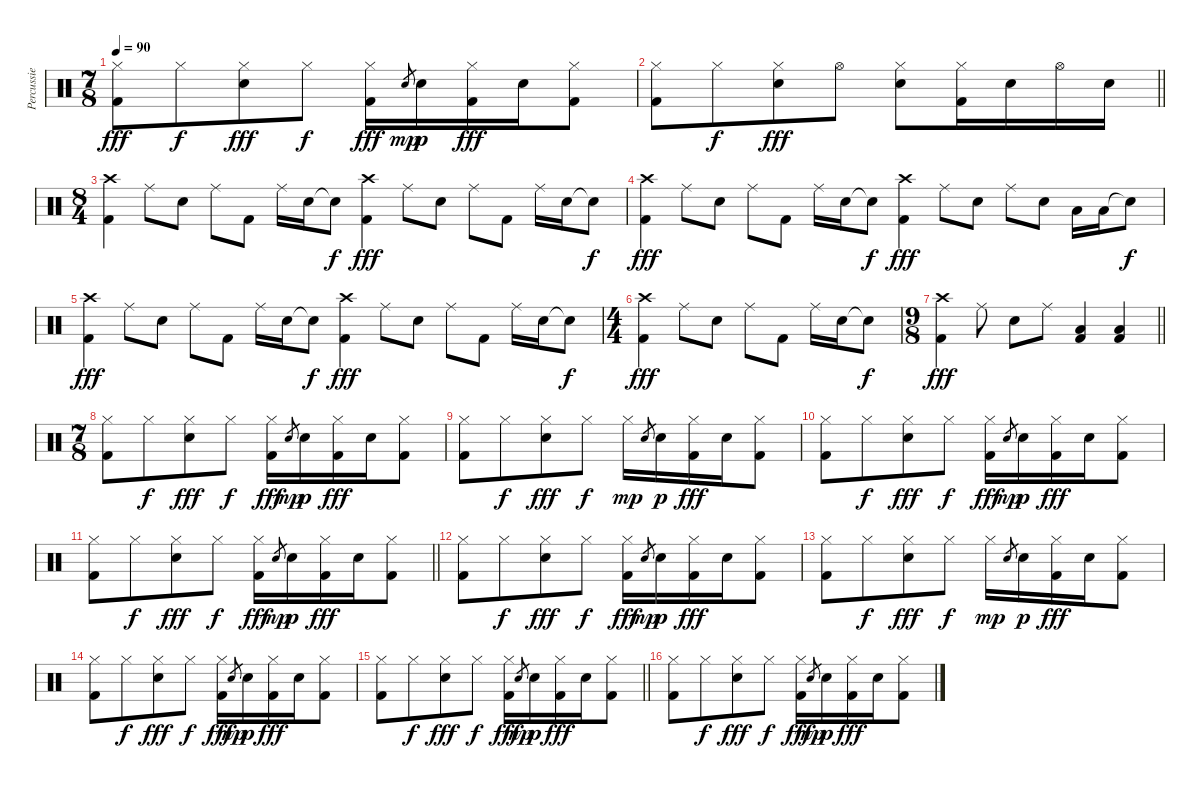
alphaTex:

\track ("Percussie" "Percussie") {instrument percussion}
\staff {score}
\articulation defaults
\ts (7 8)
\tempo 90
\clef neutral
\ks c
("Hi-Hat (closed)" "Kick (hit) 2").8{dy fff} "Hi-Hat (closed)".8{dy f} ("Hi-Hat (closed)" "Snare (hit) 2").8{dy fff} "Hi-Hat (closed)".8{dy f} ("Hi-Hat (closed)" "Kick (hit) 2").16{dy fff} "Snare (hit) 2".8{gr dy mp} "Snare (hit) 2".16{dy p} ("Hi-Hat (closed)" "Kick (hit) 2").16{dy fff} "Snare (hit) 2".16 ("Hi-Hat (closed)" "Kick (hit) 2").8 |
\barLineRight lightlight
("Hi-Hat (closed)" "Kick (hit) 2").8 "Hi-Hat (closed)".8{dy f} ("Hi-Hat (closed)" "Snare (hit) 2").8{dy fff} "Hi-Hat (open)".8 ("Hi-Hat (closed)" "Snare (hit) 2").8 ("Hi-Hat (closed)" "Kick (hit) 2").16 "Snare (hit) 2".16 "Hi-Hat (open)".16 "Snare (hit) 2".16 |
\ts (8 4)
("Crash high (hit)" "Kick (hit) 2").4 "Ride (middle)".8 "Snare (hit) 2".8 "Ride (middle)".8 "Kick (hit) 2".8 "Ride (middle)".16 "Snare (hit) 2".16 "Snare (hit)"{t}.8{dy f} ("Crash high (hit)" "Kick (hit) 2").4{dy fff} "Ride (middle)".8 "Snare (hit) 2".8 "Ride (middle)".8 "Kick (hit) 2".8 "Ride (middle)".16 "Snare (hit) 2".16 "Snare (hit)"{t}.8{dy f} |
("Crash high (hit)" "Kick (hit) 2").4{dy fff} "Ride (middle)".8 "Snare (hit) 2".8 "Ride (middle)".8 "Kick (hit) 2".8 "Ride (middle)".16 "Snare (hit) 2".16 "Snare (hit)"{t}.8{dy f} ("Crash high (hit)" "Kick (hit) 2").4{dy fff} "Ride (middle)".8 "Snare (hit) 2".8 "Ride (middle)".8 "Snare (hit) 2".8 "Low Floor Tom (hit)".16 "Low Floor Tom (hit)".16 "Snare (hit)"{t}.8{dy f} |
("Crash high (hit)" "Kick (hit) 2").4{dy fff} "Ride (middle)".8 "Snare (hit) 2".8 "Ride (middle)".8 "Kick (hit) 2".8 "Ride (middle)".16 "Snare (hit) 2".16 "Snare (hit)"{t}.8{dy f} ("Crash high (hit)" "Kick (hit) 2").4{dy fff} "Ride (middle)".8 "Snare (hit) 2".8 "Ride (middle)".8 "Kick (hit) 2".8 "Ride (middle)".16 "Snare (hit) 2".16 "Snare (hit)"{t}.8{dy f} |
\ts (4 4)
("Crash high (hit)" "Kick (hit) 2").4{dy fff} "Ride (middle)".8 "Snare (hit) 2".8 "Ride (middle)".8 "Kick (hit) 2".8 "Ride (middle)".16 "Snare (hit) 2".16 "Snare (hit)"{t}.8{dy f} |
\ts (9 8)
\barLineRight lightlight
("Crash high (hit)" "Kick (hit) 2").4{dy fff} "Ride (middle)".8 "Snare (hit) 2".8 "Ride (middle)".8 ("Low Floor Tom (hit)" "Kick (hit) 2").4 ("Low Floor Tom (hit)" "Kick (hit) 2").4 |
\ts (7 8)
("Hi-Hat (closed)" "Kick (hit) 2").8 "Hi-Hat (closed)".8{dy f} ("Hi-Hat (closed)" "Snare (hit) 2").8{dy fff} "Hi-Hat (closed)".8{dy f} ("Hi-Hat (closed)" "Kick (hit) 2").16{dy fff} "Snare (hit) 2".8{gr dy mp} "Snare (hit) 2".16{dy p} ("Hi-Hat (closed)" "Kick (hit) 2").16{dy fff} "Snare (hit) 2".16 ("Hi-Hat (closed)" "Kick (hit) 2").8 |
("Hi-Hat (closed)" "Kick (hit) 2").8 "Hi-Hat (closed)".8{dy f} ("Hi-Hat (closed)" "Snare (hit) 2").8{dy fff} "Hi-Hat (closed)".8{dy f} "Hi-Hat (closed)".16{dy mp} "Snare (hit) 2".8{gr} "Snare (hit) 2".16{dy p} ("Hi-Hat (closed)" "Kick (hit) 2").16{dy fff} "Snare (hit) 2".16 ("Hi-Hat (closed)" "Kick (hit) 2").8 |
("Hi-Hat (closed)" "Kick (hit) 2").8 "Hi-Hat (closed)".8{dy f} ("Hi-Hat (closed)" "Snare (hit) 2").8{dy fff} "Hi-Hat (closed)".8{dy f} ("Hi-Hat (closed)" "Kick (hit) 2").16{dy fff} "Snare (hit) 2".8{gr dy mp} "Snare (hit) 2".16{dy p} ("Hi-Hat (closed)" "Kick (hit) 2").16{dy fff} "Snare (hit) 2".16 ("Hi-Hat (closed)" "Kick (hit) 2").8 |
\barLineRight lightlight
("Hi-Hat (closed)" "Kick (hit) 2").8 "Hi-Hat (closed)".8{dy f} ("Hi-Hat (closed)" "Snare (hit) 2").8{dy fff} "Hi-Hat (closed)".8{dy f} ("Hi-Hat (closed)" "Kick (hit) 2").16{dy fff} "Snare (hit) 2".8{gr dy mp} "Snare (hit) 2".16{dy p} ("Hi-Hat (closed)" "Kick (hit) 2").16{dy fff} "Snare (hit) 2".16 ("Hi-Hat (closed)" "Kick (hit) 2").8 |
("Hi-Hat (closed)" "Kick (hit) 2").8 "Hi-Hat (closed)".8{dy f} ("Hi-Hat (closed)" "Snare (hit) 2").8{dy fff} "Hi-Hat (closed)".8{dy f} ("Hi-Hat (closed)" "Kick (hit) 2").16{dy fff} "Snare (hit) 2".8{gr dy mp} "Snare (hit) 2".16{dy p} ("Hi-Hat (closed)" "Kick (hit) 2").16{dy fff} "Snare (hit) 2".16 ("Hi-Hat (closed)" "Kick (hit) 2").8 |
("Hi-Hat (closed)" "Kick (hit) 2").8 "Hi-Hat (closed)".8{dy f} ("Hi-Hat (closed)" "Snare (hit) 2").8{dy fff} "Hi-Hat (closed)".8{dy f} "Hi-Hat (closed)".16{dy mp} "Snare (hit) 2".8{gr} "Snare (hit) 2".16{dy p} ("Hi-Hat (closed)" "Kick (hit) 2").16{dy fff} "Snare (hit) 2".16 ("Hi-Hat (closed)" "Kick (hit) 2").8 |
("Hi-Hat (closed)" "Kick (hit) 2").8 "Hi-Hat (closed)".8{dy f} ("Hi-Hat (closed)" "Snare (hit) 2").8{dy fff} "Hi-Hat (closed)".8{dy f} ("Hi-Hat (closed)" "Kick (hit) 2").16{dy fff} "Snare (hit) 2".8{gr dy mp} "Snare (hit) 2".16{dy p} ("Hi-Hat (closed)" "Kick (hit) 2").16{dy fff} "Snare (hit) 2".16 ("Hi-Hat (closed)" "Kick (hit) 2").8 |
\barLineRight lightlight
("Hi-Hat (closed)" "Kick (hit) 2").8 "Hi-Hat (closed)".8{dy f} ("Hi-Hat (closed)" "Snare (hit) 2").8{dy fff} "Hi-Hat (closed)".8{dy f} ("Hi-Hat (closed)" "Kick (hit) 2").16{dy fff} "Snare (hit) 2".8{gr dy mp} "Snare (hit) 2".16{dy p} ("Hi-Hat (closed)" "Kick (hit) 2").16{dy fff} "Snare (hit) 2".16 ("Hi-Hat (closed)" "Kick (hit) 2").8 |
("Hi-Hat (closed)" "Kick (hit) 2").8 "Hi-Hat (closed)".8{dy f} ("Hi-Hat (closed)" "Snare (hit) 2").8{dy fff} "Hi-Hat (closed)".8{dy f} ("Hi-Hat (closed)" "Kick (hit) 2").16{dy fff} "Snare (hit) 2".8{gr dy mp} "Snare (hit) 2".16{dy p} ("Hi-Hat (closed)" "Kick (hit) 2").16{dy fff} "Snare (hit) 2".16 ("Hi-Hat (closed)" "Kick (hit) 2").8
